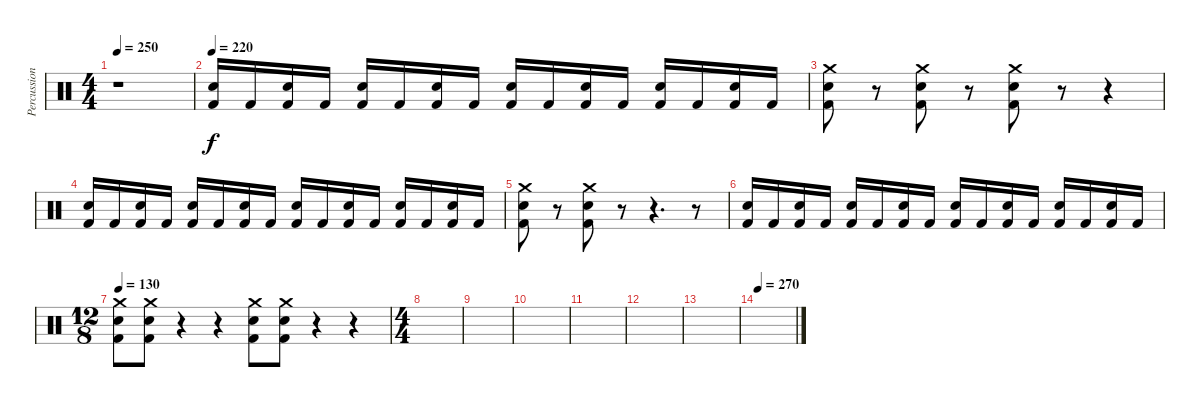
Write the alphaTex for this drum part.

\track ("Percussions" "Percussion") {instrument percussion}
\staff {score}
\articulation defaults
\ts (4 4)
\tempo 250
\clef neutral
\ks c
r.1{dy f} |
\tempo 220
("Electric Snare (hit)" "Kick (hit) 2").16 "Kick (hit) 2".16 ("Electric Snare (hit)" "Kick (hit) 2").16 "Kick (hit) 2".16 ("Electric Snare (hit)" "Kick (hit) 2").16 "Kick (hit) 2".16 ("Electric Snare (hit)" "Kick (hit) 2").16 "Kick (hit) 2".16 ("Electric Snare (hit)" "Kick (hit) 2").16 "Kick (hit) 2".16 ("Electric Snare (hit)" "Kick (hit) 2").16 "Kick (hit) 2".16 ("Electric Snare (hit)" "Kick (hit) 2").16 "Kick (hit) 2".16 ("Electric Snare (hit)" "Kick (hit) 2").16 "Kick (hit) 2".16 |
("Crash medium (hit)" "Electric Snare (hit)" "Kick (hit) 2").8 r.8 ("Crash medium (hit)" "Electric Snare (hit)" "Kick (hit) 2").8 r.8 ("Crash medium (hit)" "Electric Snare (hit)" "Kick (hit) 2").8 r.8 r.4 |
("Electric Snare (hit)" "Kick (hit) 2").16 "Kick (hit) 2".16 ("Electric Snare (hit)" "Kick (hit) 2").16 "Kick (hit) 2".16 ("Electric Snare (hit)" "Kick (hit) 2").16 "Kick (hit) 2".16 ("Electric Snare (hit)" "Kick (hit) 2").16 "Kick (hit) 2".16 ("Electric Snare (hit)" "Kick (hit) 2").16 "Kick (hit) 2".16 ("Electric Snare (hit)" "Kick (hit) 2").16 "Kick (hit) 2".16 ("Electric Snare (hit)" "Kick (hit) 2").16 "Kick (hit) 2".16 ("Electric Snare (hit)" "Kick (hit) 2").16 "Kick (hit) 2".16 |
("Crash medium (hit)" "Electric Snare (hit)" "Kick (hit) 2").8 r.8 ("Crash medium (hit)" "Electric Snare (hit)" "Kick (hit) 2").8 r.8 r.4{d} r.8 |
("Electric Snare (hit)" "Kick (hit) 2").16 "Kick (hit) 2".16 ("Electric Snare (hit)" "Kick (hit) 2").16 "Kick (hit) 2".16 ("Electric Snare (hit)" "Kick (hit) 2").16 "Kick (hit) 2".16 ("Electric Snare (hit)" "Kick (hit) 2").16 "Kick (hit) 2".16 ("Electric Snare (hit)" "Kick (hit) 2").16 "Kick (hit) 2".16 ("Electric Snare (hit)" "Kick (hit) 2").16 "Kick (hit) 2".16 ("Electric Snare (hit)" "Kick (hit) 2").16 "Kick (hit) 2".16 ("Electric Snare (hit)" "Kick (hit) 2").16 "Kick (hit) 2".16 |
\ts (12 8)
\tempo 130
("Crash medium (hit)" "Electric Snare (hit)" "Kick (hit) 2").8 ("Crash medium (hit)" "Electric Snare (hit)" "Kick (hit) 2").8 r.4 r.4 ("Crash medium (hit)" "Electric Snare (hit)" "Kick (hit) 2").8 ("Crash medium (hit)" "Electric Snare (hit)" "Kick (hit) 2").8 r.4 r.4 |
\ts (4 4)
|
|
|
|
|
|
\tempo 270
